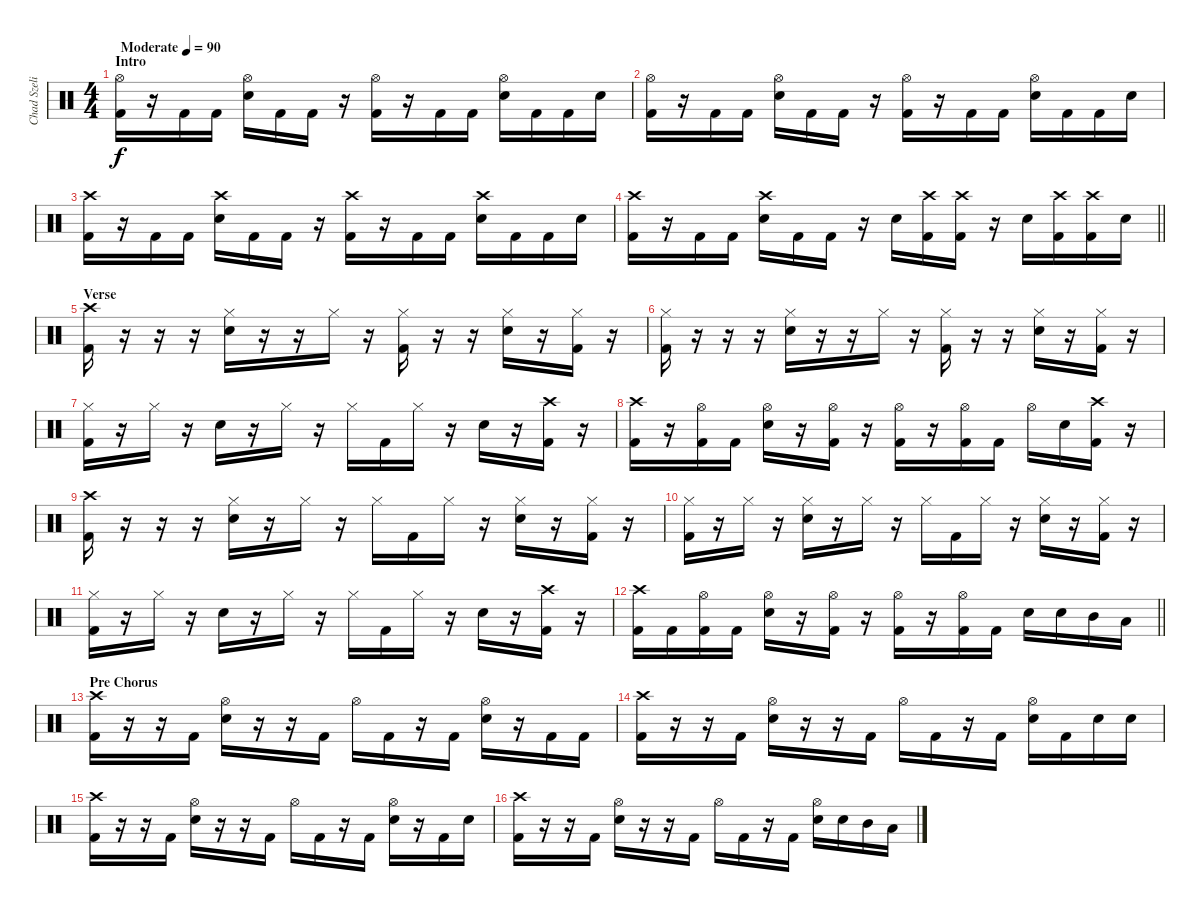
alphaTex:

\track ("Chad Szeliga" "Chad Szeli") {instrument percussion}
\staff {score}
\articulation defaults
\ts (4 4)
\section ("" "Intro")
\tempo (90 "Moderate")
\clef neutral
\ks c
("Hi-Hat (open)" "Kick (hit) 2").16{dy f} r.16 "Kick (hit) 2".16 "Kick (hit) 2".16 ("Hi-Hat (open)" "Electric Snare (hit)").16 "Kick (hit) 2".16 "Kick (hit) 2".16 r.16 ("Hi-Hat (open)" "Kick (hit) 2").16 r.16 "Kick (hit) 2".16 "Kick (hit) 2".16 ("Hi-Hat (open)" "Electric Snare (hit)").16 "Kick (hit) 2".16 "Kick (hit) 2".16 "Electric Snare (hit)".16 |
("Hi-Hat (open)" "Kick (hit) 2").16 r.16 "Kick (hit) 2".16 "Kick (hit) 2".16 ("Hi-Hat (open)" "Electric Snare (hit)").16 "Kick (hit) 2".16 "Kick (hit) 2".16 r.16 ("Hi-Hat (open)" "Kick (hit) 2").16 r.16 "Kick (hit) 2".16 "Kick (hit) 2".16 ("Hi-Hat (open)" "Electric Snare (hit)").16 "Kick (hit) 2".16 "Kick (hit) 2".16 "Electric Snare (hit)".16 |
("Crash high (hit)" "Kick (hit) 2").16 r.16 "Kick (hit) 2".16 "Kick (hit) 2".16 ("Crash high (hit)" "Electric Snare (hit)").16 "Kick (hit) 2".16 "Kick (hit) 2".16 r.16 ("Crash high (hit)" "Kick (hit) 2").16 r.16 "Kick (hit) 2".16 "Kick (hit) 2".16 ("Crash high (hit)" "Electric Snare (hit)").16 "Kick (hit) 2".16 "Kick (hit) 2".16 "Electric Snare (hit)".16 |
\barLineRight lightlight
("Crash high (hit)" "Kick (hit) 2").16 r.16 "Kick (hit) 2".16 "Kick (hit) 2".16 ("Crash high (hit)" "Electric Snare (hit)").16 "Kick (hit) 2".16 "Kick (hit) 2".16 r.16 "Electric Snare (hit)".16 ("Crash high (hit)" "Kick (hit) 2").16 ("Crash high (hit)" "Kick (hit) 2").16 r.16 "Electric Snare (hit)".16 ("Crash high (hit)" "Kick (hit) 2").16 ("Crash high (hit)" "Kick (hit) 2").16 "Electric Snare (hit)".16 |
\section ("" "Verse")
("Crash high (hit)" "Kick (hit) 2").16 r.16 r.16 r.16 ("Hi-Hat (closed)" "Electric Snare (hit)").16 r.16 r.16 "Hi-Hat (closed)".16 r.16 ("Hi-Hat (closed)" "Kick (hit) 2").16 r.16 r.16 ("Hi-Hat (closed)" "Electric Snare (hit)").16 r.16 ("Hi-Hat (closed)" "Kick (hit) 2").16 r.16 |
("Hi-Hat (closed)" "Kick (hit) 2").16 r.16 r.16 r.16 ("Hi-Hat (closed)" "Electric Snare (hit)").16 r.16 r.16 "Hi-Hat (closed)".16 r.16 ("Hi-Hat (closed)" "Kick (hit) 2").16 r.16 r.16 ("Hi-Hat (closed)" "Electric Snare (hit)").16 r.16 ("Hi-Hat (closed)" "Kick (hit) 2").16 r.16 |
("Hi-Hat (closed)" "Kick (hit) 2").16 r.16 "Hi-Hat (closed)".16 r.16 "Electric Snare (hit)".16 r.16 "Hi-Hat (closed)".16 r.16 "Hi-Hat (closed)".16 "Kick (hit) 2".16 "Hi-Hat (closed)".16 r.16 "Electric Snare (hit)".16 r.16 ("Crash high (hit)" "Kick (hit) 2").16 r.16 |
("Crash high (hit)" "Kick (hit) 2").16 r.16 ("Hi-Hat (open)" "Kick (hit) 2").16 "Kick (hit) 2".16 ("Hi-Hat (open)" "Electric Snare (hit)").16 r.16 ("Hi-Hat (open)" "Kick (hit) 2").16 r.16 ("Hi-Hat (open)" "Kick (hit) 2").16 r.16 ("Hi-Hat (open)" "Kick (hit) 2").16 "Kick (hit) 2".16 "Hi-Hat (open)".16 "Electric Snare (hit)".16 ("Crash high (hit)" "Kick (hit) 2").16 r.16 |
("Crash high (hit)" "Kick (hit) 2").16 r.16 r.16 r.16 ("Hi-Hat (closed)" "Electric Snare (hit)").16 r.16 "Hi-Hat (closed)".16 r.16 "Hi-Hat (closed)".16 "Kick (hit) 2".16 "Hi-Hat (closed)".16 r.16 ("Hi-Hat (closed)" "Electric Snare (hit)").16 r.16 ("Hi-Hat (closed)" "Kick (hit) 2").16 r.16 |
("Hi-Hat (closed)" "Kick (hit) 2").16 r.16 "Hi-Hat (closed)".16 r.16 ("Hi-Hat (closed)" "Electric Snare (hit)").16 r.16 "Hi-Hat (closed)".16 r.16 "Hi-Hat (closed)".16 "Kick (hit) 2".16 "Hi-Hat (closed)".16 r.16 ("Hi-Hat (closed)" "Electric Snare (hit)").16 r.16 ("Hi-Hat (closed)" "Kick (hit) 2").16 r.16 |
("Hi-Hat (closed)" "Kick (hit) 2").16 r.16 "Hi-Hat (closed)".16 r.16 "Electric Snare (hit)".16 r.16 "Hi-Hat (closed)".16 r.16 "Hi-Hat (closed)".16 "Kick (hit) 2".16 "Hi-Hat (closed)".16 r.16 "Electric Snare (hit)".16 r.16 ("Crash high (hit)" "Kick (hit) 2").16 r.16 |
\barLineRight lightlight
("Crash high (hit)" "Kick (hit) 2").16 "Kick (hit) 2".16 ("Hi-Hat (open)" "Kick (hit) 2").16 "Kick (hit) 2".16 ("Hi-Hat (open)" "Electric Snare (hit)").16 r.16 ("Hi-Hat (open)" "Kick (hit) 2").16 r.16 ("Hi-Hat (open)" "Kick (hit) 2").16 r.16 ("Hi-Hat (open)" "Kick (hit) 2").16 "Kick (hit) 2".16 "Electric Snare (hit)".16 "Electric Snare (hit)".16 "Mid Tom (hit)".16 "Low Tom (hit)".16 |
\section ("" "Pre Chorus")
("Crash high (hit)" "Kick (hit) 2").16 r.16 r.16 "Kick (hit) 2".16 ("Hi-Hat (open)" "Electric Snare (hit)").16 r.16 r.16 "Kick (hit) 2".16 "Hi-Hat (open)".16 "Kick (hit) 2".16 r.16 "Kick (hit) 2".16 ("Hi-Hat (open)" "Electric Snare (hit)").16 r.16 "Kick (hit) 2".16 "Kick (hit) 2".16 |
("Crash high (hit)" "Kick (hit) 2").16 r.16 r.16 "Kick (hit) 2".16 ("Hi-Hat (open)" "Electric Snare (hit)").16 r.16 r.16 "Kick (hit) 2".16 "Hi-Hat (open)".16 "Kick (hit) 2".16 r.16 "Kick (hit) 2".16 ("Hi-Hat (open)" "Electric Snare (hit)").16 "Kick (hit) 2".16 "Electric Snare (hit)".16 "Electric Snare (hit)".16 |
("Crash high (hit)" "Kick (hit) 2").16 r.16 r.16 "Kick (hit) 2".16 ("Hi-Hat (open)" "Electric Snare (hit)").16 r.16 r.16 "Kick (hit) 2".16 "Hi-Hat (open)".16 "Kick (hit) 2".16 r.16 "Kick (hit) 2".16 ("Hi-Hat (open)" "Electric Snare (hit)").16 r.16 "Kick (hit) 2".16 "Electric Snare (hit)".16 |
("Crash high (hit)" "Kick (hit) 2").16 r.16 r.16 "Kick (hit) 2".16 ("Hi-Hat (open)" "Electric Snare (hit)").16 r.16 r.16 "Kick (hit) 2".16 "Hi-Hat (open)".16 "Kick (hit) 2".16 r.16 "Kick (hit) 2".16 ("Hi-Hat (open)" "Electric Snare (hit)").16 "Electric Snare (hit)".16 "Mid Tom (hit)".16 "Low Tom (hit)".16
